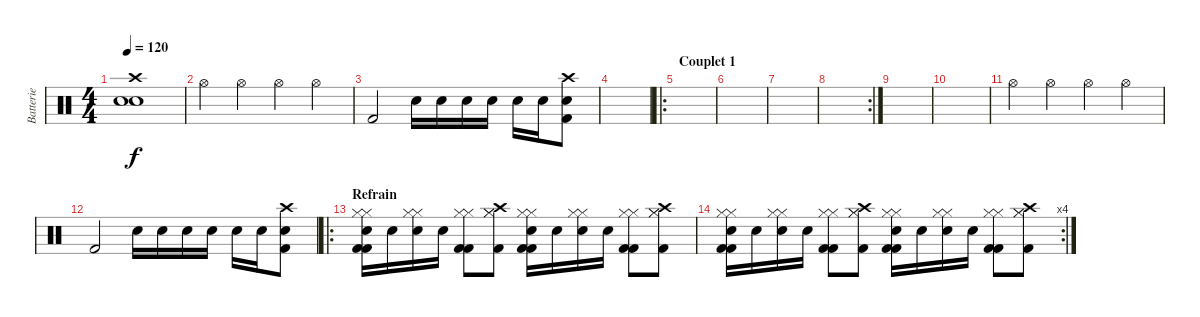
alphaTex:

\track ("Batterie" "Batterie") {instrument percussion}
\staff {score}
\articulation defaults
\ts (4 4)
\section ("" "")
\tempo 120
\clef neutral
\ks c
("Crash high (hit)" "Electric Snare (hit)" "Snare (hit) 2").1{dy f} |
"Hi-Hat (open)".4 "Hi-Hat (open)".4 "Hi-Hat (open)".4 "Hi-Hat (open)".4 |
"Kick (hit) 2".2 "Snare (hit) 2".16 "Snare (hit) 2".16 "Snare (hit) 2".16 "Snare (hit) 2".16 "Snare (hit) 2".16 "Snare (hit) 2".16 ("Snare (hit) 2" "Kick (hit) 2" "Crash high (hit)").8 |
|
\ro
\section ("" "Couplet 1")
|
|
|
\rc 2
|
|
|
"Hi-Hat (open)".4 "Hi-Hat (open)".4 "Hi-Hat (open)".4 "Hi-Hat (open)".4 |
"Kick (hit) 2".2 "Snare (hit) 2".16 "Snare (hit) 2".16 "Snare (hit) 2".16 "Snare (hit) 2".16 "Snare (hit) 2".16 "Snare (hit) 2".16 ("Snare (hit) 2" "Kick (hit) 2" "Crash high (hit)").8 |
\ro
\section ("" "Refrain")
("Snare (hit) 2" "Kick (hit) 2" "Kick (hit) 2" "Hi-Hat (closed)" "Hi-Hat (closed)").16 "Snare (hit) 2".16 ("Snare (hit) 2" "Hi-Hat (closed)" "Hi-Hat (closed)").16 "Snare (hit) 2".16 ("Kick (hit) 2" "Kick (hit) 2" "Hi-Hat (closed)" "Hi-Hat (closed)").8 ("Crash high (hit)" "Kick (hit) 2" "Hi-Hat (closed)" "Hi-Hat (closed)").8 ("Electric Snare (hit)" "Kick (hit) 2" "Kick (hit) 2" "Hi-Hat (closed)" "Hi-Hat (closed)").16 "Electric Snare (hit)".16 ("Electric Snare (hit)" "Hi-Hat (closed)" "Hi-Hat (closed)").16 "Electric Snare (hit)".16 ("Kick (hit) 2" "Kick (hit) 2" "Hi-Hat (closed)" "Hi-Hat (closed)").8 ("Crash high (hit)" "Kick (hit) 2" "Hi-Hat (closed)" "Hi-Hat (closed)").8 |
\rc 4
("Snare (hit) 2" "Kick (hit) 2" "Kick (hit) 2" "Hi-Hat (closed)" "Hi-Hat (closed)").16 "Snare (hit) 2".16 ("Snare (hit) 2" "Hi-Hat (closed)" "Hi-Hat (closed)").16 "Snare (hit) 2".16 ("Kick (hit) 2" "Kick (hit) 2" "Hi-Hat (closed)" "Hi-Hat (closed)").8 ("Crash high (hit)" "Kick (hit) 2" "Hi-Hat (closed)" "Hi-Hat (closed)").8 ("Electric Snare (hit)" "Kick (hit) 2" "Kick (hit) 2" "Hi-Hat (closed)" "Hi-Hat (closed)").16 "Electric Snare (hit)".16 ("Electric Snare (hit)" "Hi-Hat (closed)" "Hi-Hat (closed)").16 "Electric Snare (hit)".16 ("Kick (hit) 2" "Kick (hit) 2" "Hi-Hat (closed)" "Hi-Hat (closed)").8 ("Crash high (hit)" "Kick (hit) 2" "Hi-Hat (closed)" "Hi-Hat (closed)").8
